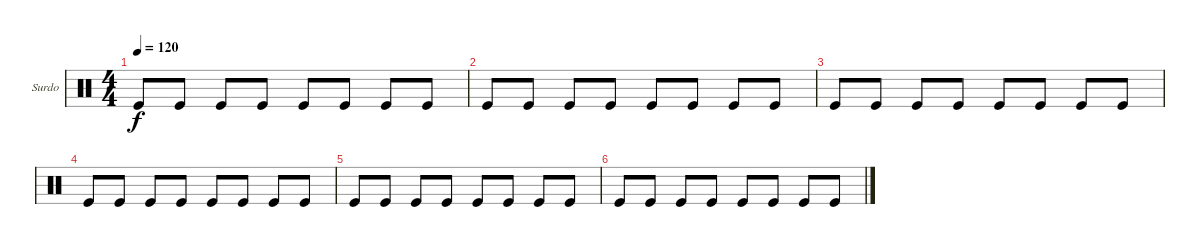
\defaultSystemsLayout 4
\bracketExtendMode groupsimilarinstruments
\firstSystemTrackNameOrientation horizontal
\otherSystemsTrackNameOrientation horizontal
\track ("Surdo" "Surdo") {instrument percussion}
\staff {score}
\articulation defaults
\ts (4 4)
\tempo 120
\clef neutral
\scale
0.333333
\ks c "Kick (hit)".8{dy f} "Kick (hit)".8 "Kick (hit)".8 "Kick (hit)".8 "Kick (hit)".8 "Kick (hit)".8 "Kick (hit)".8 "Kick (hit)".8
|
\scale
0.333333 "Kick (hit)".8 "Kick (hit)".8 "Kick (hit)".8 "Kick (hit)".8 "Kick (hit)".8 "Kick (hit)".8 "Kick (hit)".8 "Kick (hit)".8 |
\scale
0.333333 "Kick (hit)".8 "Kick (hit)".8 "Kick (hit)".8 "Kick (hit)".8 "Kick (hit)".8 "Kick (hit)".8 "Kick (hit)".8 "Kick (hit)".8 |
\scale
0.333333 "Kick (hit)".8 "Kick (hit)".8 "Kick (hit)".8 "Kick (hit)".8 "Kick (hit)".8 "Kick (hit)".8 "Kick (hit)".8 "Kick (hit)".8 |
\scale
0.333333 "Kick (hit)".8 "Kick (hit)".8 "Kick (hit)".8 "Kick (hit)".8 "Kick (hit)".8 "Kick (hit)".8 "Kick (hit)".8 "Kick (hit)".8 |
\scale
0.333333 "Kick (hit)".8 "Kick (hit)".8 "Kick (hit)".8 "Kick (hit)".8 "Kick (hit)".8 "Kick (hit)".8 "Kick (hit)".8 "Kick (hit)".8 |
\scale
0.333333
